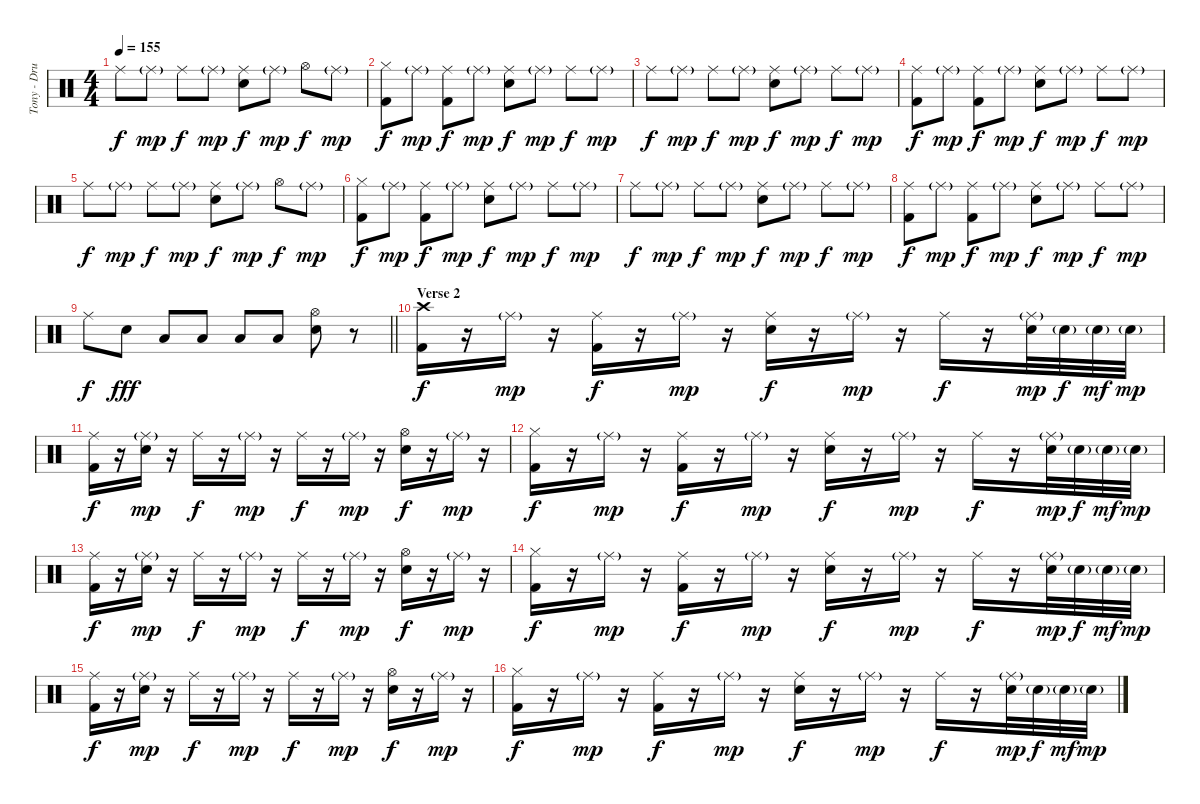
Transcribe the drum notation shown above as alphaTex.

\track ("Tony - Drums" "Tony - Dru") {instrument percussion}
\staff {score}
\articulation defaults
\ts (4 4)
\tempo 155
\clef neutral
\ks c "Ride (middle)".8{dy f} "Ride (middle)"{g}.8{dy mp} "Ride (middle)".8{dy f} "Ride (middle)"{g}.8{dy mp}
("Ride (middle)" "Electric Snare (hit)").8{dy f} "Ride (middle)"{g}.8{dy mp} "Hi-Hat (open)".8{dy f} "Ride (middle)"{g}.8{dy mp} |
("Hi-Hat (closed)" "Kick (hit) 2").8{dy f} "Ride (middle)"{g}.8{dy mp} ("Ride (middle)" "Kick (hit) 2").8{dy f} "Ride (middle)"{g}.8{dy mp} ("Ride (middle)" "Electric Snare (hit)").8{dy f} "Ride (middle)"{g}.8{dy mp} "Ride (middle)".8{dy f} "Ride (middle)"{g}.8{dy mp} |
"Ride (middle)".8{dy f} "Ride (middle)"{g}.8{dy mp} "Ride (middle)".8{dy f} "Ride (middle)"{g}.8{dy mp} ("Ride (middle)" "Electric Snare (hit)").8{dy f} "Ride (middle)"{g}.8{dy mp} "Ride (middle)".8{dy f} "Ride (middle)"{g}.8{dy mp} |
("Ride (middle)" "Kick (hit) 2").8{dy f} "Ride (middle)"{g}.8{dy mp} ("Ride (middle)" "Kick (hit) 2").8{dy f} "Ride (middle)"{g}.8{dy mp} ("Ride (middle)" "Electric Snare (hit)").8{dy f} "Ride (middle)"{g}.8{dy mp} "Ride (middle)".8{dy f} "Ride (middle)"{g}.8{dy mp} |
"Ride (middle)".8{dy f} "Ride (middle)"{g}.8{dy mp} "Ride (middle)".8{dy f} "Ride (middle)"{g}.8{dy mp} ("Ride (middle)" "Electric Snare (hit)").8{dy f} "Ride (middle)"{g}.8{dy mp} "Hi-Hat (open)".8{dy f} "Ride (middle)"{g}.8{dy mp} |
("Hi-Hat (closed)" "Kick (hit) 2").8{dy f} "Ride (middle)"{g}.8{dy mp} ("Ride (middle)" "Kick (hit) 2").8{dy f} "Ride (middle)"{g}.8{dy mp} ("Ride (middle)" "Electric Snare (hit)").8{dy f} "Ride (middle)"{g}.8{dy mp} "Ride (middle)".8{dy f} "Ride (middle)"{g}.8{dy mp} |
"Ride (middle)".8{dy f} "Ride (middle)"{g}.8{dy mp} "Ride (middle)".8{dy f} "Ride (middle)"{g}.8{dy mp} ("Ride (middle)" "Electric Snare (hit)").8{dy f} "Ride (middle)"{g}.8{dy mp} "Ride (middle)".8{dy f} "Ride (middle)"{g}.8{dy mp} |
("Ride (middle)" "Kick (hit) 2").8{dy f} "Ride (middle)"{g}.8{dy mp} ("Ride (middle)" "Kick (hit) 2").8{dy f} "Ride (middle)"{g}.8{dy mp} ("Ride (middle)" "Electric Snare (hit)").8{dy f} "Ride (middle)"{g}.8{dy mp} "Ride (middle)".8{dy f} "Ride (middle)"{g}.8{dy mp} |
\barLineRight lightlight "Ride (middle)".8{dy f} "Electric Snare (hit)".8{dy fff} "Low Tom (hit)".8 "Low Tom (hit)".8 "Low Floor Tom (hit)".8 "Low Floor Tom (hit)".8
("Hi-Hat (open)" "Electric Snare (hit)").8 r.8 |
\section ("" "Verse 2")
("Crash high (hit)" "Kick (hit) 2").16{dy f} r.16 "Ride (middle)"{g}.16{dy mp} r.16 ("Ride (middle)" "Kick (hit) 2").16{dy f} r.16 "Ride (middle)"{g}.16{dy mp} r.16 ("Ride (middle)" "Electric Snare (hit)").16{dy f} r.16 "Ride (middle)"{g}.16{dy mp} r.16 "Ride (middle)".16{dy f} r.16 ("Ride (middle)"{g} "Electric Snare (hit)").32{dy mp} "Electric Snare (hit)"{g}.32{dy f} "Electric Snare (hit)"{g}.32{dy mf} "Electric Snare (hit)"{g}.32{dy mp} |
("Ride (middle)" "Kick (hit) 2").16{dy f} r.16 ("Ride (middle)"{g} "Electric Snare (hit)").16{dy mp} r.16 "Ride (middle)".16{dy f} r.16 "Ride (middle)"{g}.16{dy mp} r.16 "Ride (middle)".16{dy f} r.16 "Ride (middle)"{g}.16{dy mp} r.16 ("Hi-Hat (open)" "Electric Snare (hit)").16{dy f} r.16 "Ride (middle)"{g}.16{dy mp} r.16 |
("Hi-Hat (closed)" "Kick (hit) 2").16{dy f} r.16 "Ride (middle)"{g}.16{dy mp} r.16 ("Ride (middle)" "Kick (hit) 2").16{dy f} r.16 "Ride (middle)"{g}.16{dy mp} r.16 ("Ride (middle)" "Electric Snare (hit)").16{dy f} r.16 "Ride (middle)"{g}.16{dy mp} r.16 "Ride (middle)".16{dy f} r.16 ("Ride (middle)"{g} "Electric Snare (hit)").32{dy mp} "Electric Snare (hit)"{g}.32{dy f} "Electric Snare (hit)"{g}.32{dy mf} "Electric Snare (hit)"{g}.32{dy mp} |
("Ride (middle)" "Kick (hit) 2").16{dy f} r.16 ("Ride (middle)"{g} "Electric Snare (hit)").16{dy mp} r.16 "Ride (middle)".16{dy f} r.16 "Ride (middle)"{g}.16{dy mp} r.16 "Ride (middle)".16{dy f} r.16 "Ride (middle)"{g}.16{dy mp} r.16 ("Hi-Hat (open)" "Electric Snare (hit)").16{dy f} r.16 "Ride (middle)"{g}.16{dy mp} r.16 |
("Hi-Hat (closed)" "Kick (hit) 2").16{dy f} r.16 "Ride (middle)"{g}.16{dy mp} r.16 ("Ride (middle)" "Kick (hit) 2").16{dy f} r.16 "Ride (middle)"{g}.16{dy mp} r.16 ("Ride (middle)" "Electric Snare (hit)").16{dy f} r.16 "Ride (middle)"{g}.16{dy mp} r.16 "Ride (middle)".16{dy f} r.16 ("Ride (middle)"{g} "Electric Snare (hit)").32{dy mp} "Electric Snare (hit)"{g}.32{dy f} "Electric Snare (hit)"{g}.32{dy mf} "Electric Snare (hit)"{g}.32{dy mp} |
("Ride (middle)" "Kick (hit) 2").16{dy f} r.16 ("Ride (middle)"{g} "Electric Snare (hit)").16{dy mp} r.16 "Ride (middle)".16{dy f} r.16 "Ride (middle)"{g}.16{dy mp} r.16 "Ride (middle)".16{dy f} r.16 "Ride (middle)"{g}.16{dy mp} r.16 ("Hi-Hat (open)" "Electric Snare (hit)").16{dy f} r.16 "Ride (middle)"{g}.16{dy mp} r.16 |
("Hi-Hat (closed)" "Kick (hit) 2").16{dy f} r.16 "Ride (middle)"{g}.16{dy mp} r.16 ("Ride (middle)" "Kick (hit) 2").16{dy f} r.16 "Ride (middle)"{g}.16{dy mp} r.16 ("Ride (middle)" "Electric Snare (hit)").16{dy f} r.16 "Ride (middle)"{g}.16{dy mp} r.16 "Ride (middle)".16{dy f} r.16 ("Ride (middle)"{g} "Electric Snare (hit)").32{dy mp} "Electric Snare (hit)"{g}.32{dy f} "Electric Snare (hit)"{g}.32{dy mf} "Electric Snare (hit)"{g}.32{dy mp}
